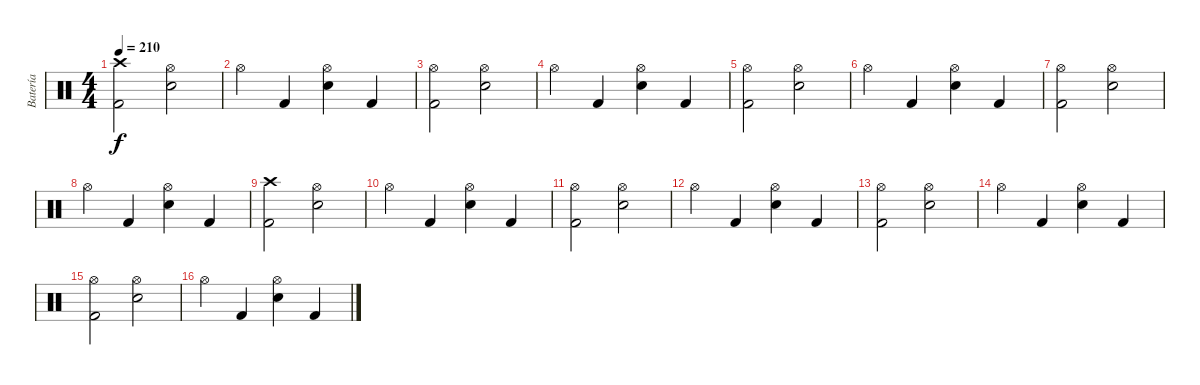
\track ("Batería" "Batería") {instrument percussion}
\staff {score}
\articulation defaults
\ts (4 4)
\tempo 210
\clef neutral
\ks c
("Crash high (hit)" "Kick (hit) 2").2{dy f} ("Hi-Hat (open)" "Snare (hit) 2").2 |
"Hi-Hat (open)".4 "Kick (hit) 2".4 ("Hi-Hat (open)" "Snare (hit) 2").4 "Kick (hit) 2".4 |
("Hi-Hat (open)" "Kick (hit) 2").2 ("Hi-Hat (open)" "Snare (hit) 2").2 |
"Hi-Hat (open)".4 "Kick (hit) 2".4 ("Hi-Hat (open)" "Snare (hit) 2").4 "Kick (hit) 2".4 |
("Hi-Hat (open)" "Kick (hit) 2").2 ("Hi-Hat (open)" "Snare (hit) 2").2 |
"Hi-Hat (open)".4 "Kick (hit) 2".4 ("Hi-Hat (open)" "Snare (hit) 2").4 "Kick (hit) 2".4 |
("Hi-Hat (open)" "Kick (hit) 2").2 ("Hi-Hat (open)" "Snare (hit) 2").2 |
"Hi-Hat (open)".4 "Kick (hit) 2".4 ("Hi-Hat (open)" "Snare (hit) 2").4 "Kick (hit) 2".4 |
("Crash high (hit)" "Kick (hit) 2").2 ("Hi-Hat (open)" "Snare (hit) 2").2 |
"Hi-Hat (open)".4 "Kick (hit) 2".4 ("Hi-Hat (open)" "Snare (hit) 2").4 "Kick (hit) 2".4 |
("Hi-Hat (open)" "Kick (hit) 2").2 ("Hi-Hat (open)" "Snare (hit) 2").2 |
"Hi-Hat (open)".4 "Kick (hit) 2".4 ("Hi-Hat (open)" "Snare (hit) 2").4 "Kick (hit) 2".4 |
("Hi-Hat (open)" "Kick (hit) 2").2 ("Hi-Hat (open)" "Snare (hit) 2").2 |
"Hi-Hat (open)".4 "Kick (hit) 2".4 ("Hi-Hat (open)" "Snare (hit) 2").4 "Kick (hit) 2".4 |
("Hi-Hat (open)" "Kick (hit) 2").2 ("Hi-Hat (open)" "Snare (hit) 2").2 |
"Hi-Hat (open)".4 "Kick (hit) 2".4 ("Hi-Hat (open)" "Snare (hit) 2").4 "Kick (hit) 2".4
